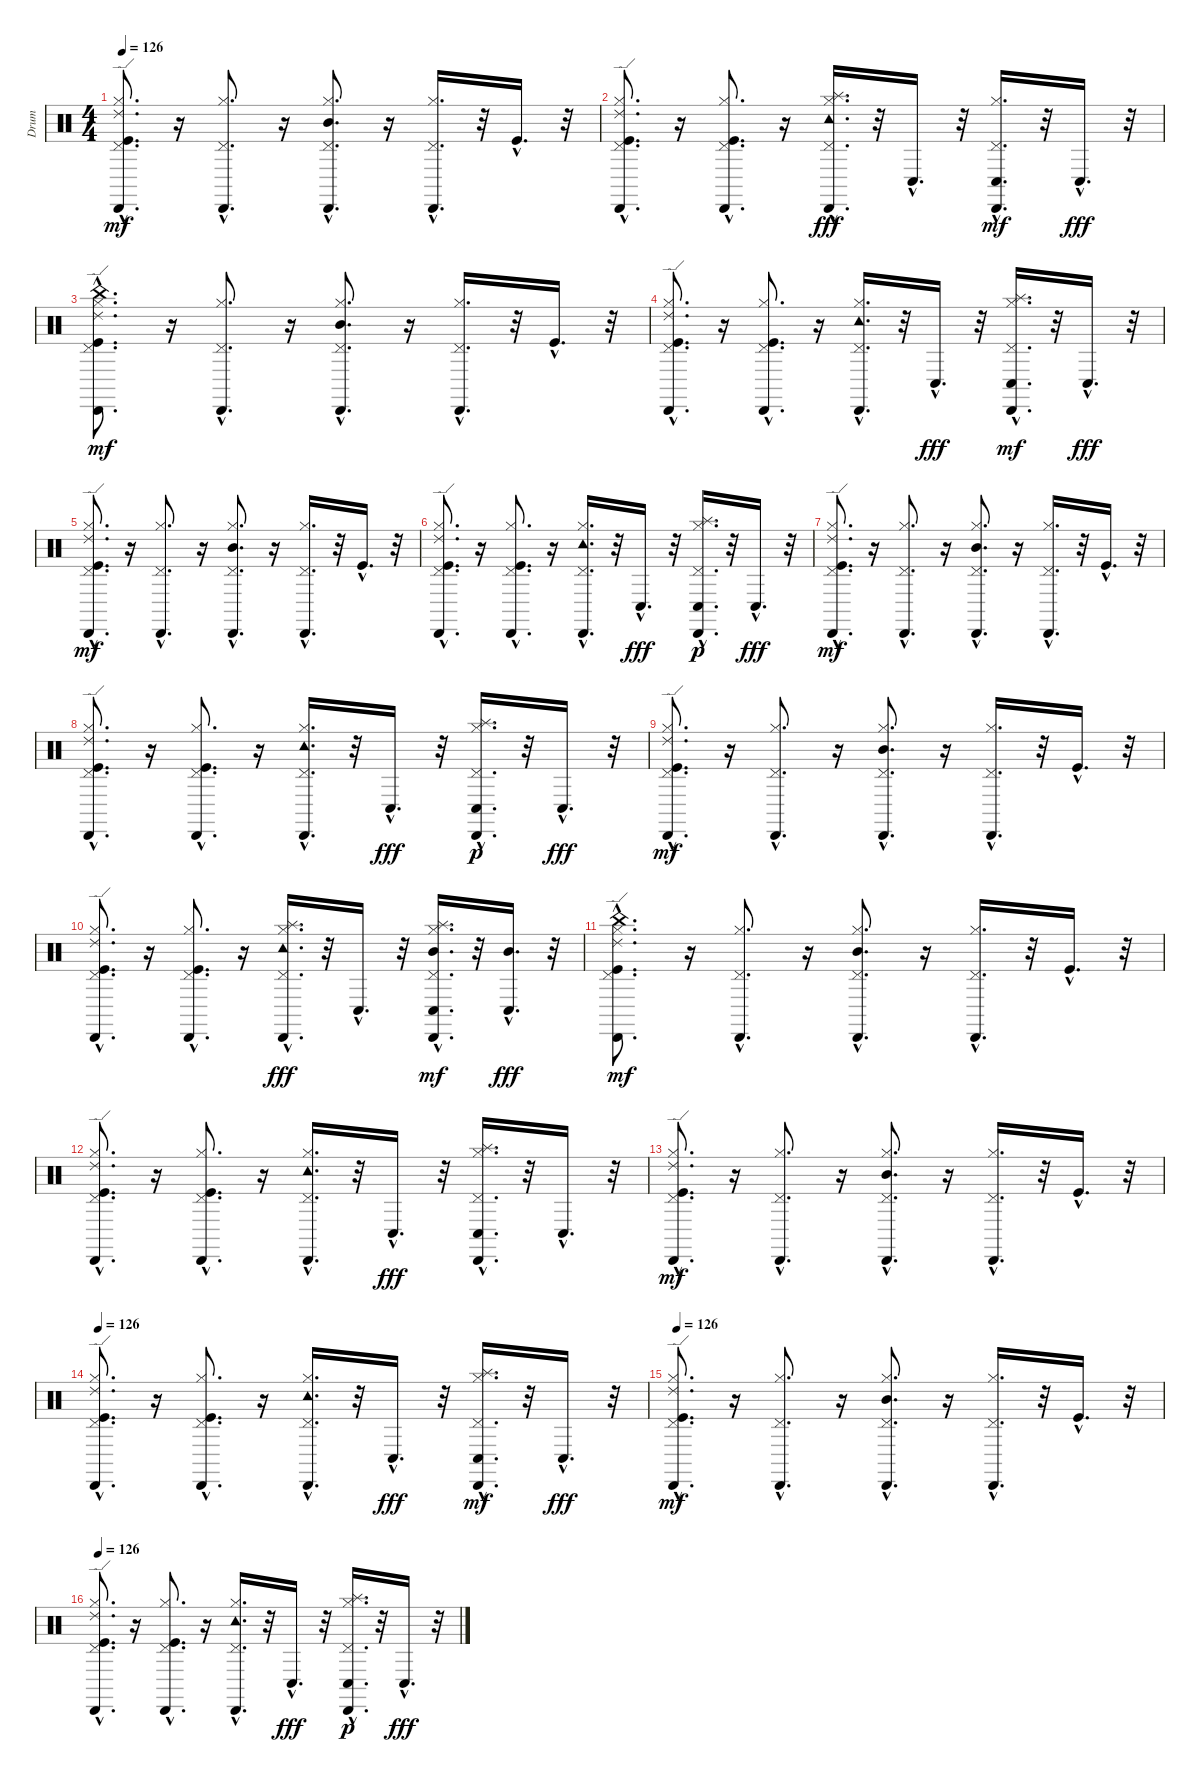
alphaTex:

\track ("Drum" "Drum") {instrument percussion}
\staff {score}
\articulation defaults
\ts (4 4)
\tempo 126
\clef neutral
\ks c
("Ride (edge) 2"{hac} "Cabasa (hit)"{hac} "Hi-Hat (closed)"{hac} "Kick (hit)"{hac} "Pedal Hi-Hat (hit)"{hac}).8{d dy mf} r.16 ("Cabasa (hit)"{hac} "Hi-Hat (closed)"{hac} "Pedal Hi-Hat (hit)"{hac}).8{d} r.16 ("Cabasa (hit)"{hac} "Hi-Hat (closed)"{hac} "Pedal Hi-Hat (hit)"{hac} "Mid Tom (hit)"{hac}).8{d} r.16 ("Cabasa (hit)"{hac} "Hi-Hat (closed)"{hac} "Pedal Hi-Hat (hit)"{hac}).16{d} r.32 "Kick (hit)"{hac}.16{d} r.32 |
("Pedal Hi-Hat (hit)"{hac} "Kick (hit)"{hac} "Hi-Hat (closed)"{hac} "Cabasa (hit)"{hac} "Ride (edge) 2"{hac}).8{d} r.16 ("Pedal Hi-Hat (hit)"{hac} "Kick (hit)"{hac} "Hi-Hat (closed)"{hac} "Cabasa (hit)"{hac}).8{d} r.16 ("Cabasa (hit)"{hac} "Pedal Hi-Hat (hit)"{hac} "Hi-Hat (closed)"{hac} "Tambourine (hit)"{hac} "Splash (hit)"{hac}).16{d dy fff} r.32 "Conga low (hit)"{hac}.16{d} r.32 ("Conga low (hit)"{hac} "Pedal Hi-Hat (hit)"{hac} "Hi-Hat (closed)"{hac} "Cabasa (hit)"{hac}).16{d dy mf} r.32 "Conga low (hit)"{hac}.16{d dy fff} r.32 |
("Ride (edge) 2"{hac} "Cabasa (hit)"{hac} "Hi-Hat (closed)"{hac} "Pedal Hi-Hat (hit)"{hac} "China (hit)"{hac} "Kick (hit)"{hac}).8{d dy mf} r.16 ("Cabasa (hit)"{hac} "Hi-Hat (closed)"{hac} "Pedal Hi-Hat (hit)"{hac}).8{d} r.16 ("Cabasa (hit)"{hac} "Hi-Hat (closed)"{hac} "Mid Tom (hit)"{hac} "Pedal Hi-Hat (hit)"{hac}).8{d} r.16 ("Cabasa (hit)"{hac} "Hi-Hat (closed)"{hac} "Pedal Hi-Hat (hit)"{hac}).16{d} r.32 "Kick (hit)"{hac}.16{d} r.32 |
("Ride (edge) 2"{hac} "Hi-Hat (closed)"{hac} "Cabasa (hit)"{hac} "Kick (hit)"{hac} "Pedal Hi-Hat (hit)"{hac}).8{d} r.16 ("Hi-Hat (closed)"{hac} "Cabasa (hit)"{hac} "Kick (hit)"{hac} "Pedal Hi-Hat (hit)"{hac}).8{d} r.16 ("Hi-Hat (closed)"{hac} "Cabasa (hit)"{hac} "Tambourine (hit)"{hac} "Pedal Hi-Hat (hit)"{hac}).16{d} r.32 "Conga low (hit)"{hac}.16{d dy fff} r.32 ("Cabasa (hit)"{hac} "Pedal Hi-Hat (hit)"{hac} "Splash (hit)"{hac} "Conga low (hit)"{hac} "Hi-Hat (closed)"{hac}).16{d dy mf} r.32 "Conga low (hit)"{hac}.16{d dy fff} r.32 |
("Ride (edge) 2"{hac} "Cabasa (hit)"{hac} "Hi-Hat (closed)"{hac} "Kick (hit)"{hac} "Pedal Hi-Hat (hit)"{hac}).8{d dy mf} r.16 ("Cabasa (hit)"{hac} "Hi-Hat (closed)"{hac} "Pedal Hi-Hat (hit)"{hac}).8{d} r.16 ("Cabasa (hit)"{hac} "Hi-Hat (closed)"{hac} "Pedal Hi-Hat (hit)"{hac} "Mid Tom (hit)"{hac}).8{d} r.16 ("Cabasa (hit)"{hac} "Hi-Hat (closed)"{hac} "Pedal Hi-Hat (hit)"{hac}).16{d} r.32 "Kick (hit)"{hac}.16{d} r.32 |
("Ride (edge) 2"{hac} "Cabasa (hit)"{hac} "Hi-Hat (closed)"{hac} "Kick (hit)"{hac} "Pedal Hi-Hat (hit)"{hac}).8{d} r.16 ("Cabasa (hit)"{hac} "Hi-Hat (closed)"{hac} "Kick (hit)"{hac} "Pedal Hi-Hat (hit)"{hac}).8{d} r.16 ("Tambourine (hit)"{hac} "Hi-Hat (closed)"{hac} "Pedal Hi-Hat (hit)"{hac} "Cabasa (hit)"{hac}).16{d} r.32 "Conga low (hit)"{hac}.16{d dy fff} r.32 ("Cabasa (hit)"{hac} "Hi-Hat (closed)"{hac} "Pedal Hi-Hat (hit)"{hac} "Conga low (hit)"{hac} "Splash (hit)"{hac}).16{d dy p} r.32 "Conga low (hit)"{hac}.16{d dy fff} r.32 |
("Ride (edge) 2"{hac} "Cabasa (hit)"{hac} "Hi-Hat (closed)"{hac} "Pedal Hi-Hat (hit)"{hac} "Kick (hit)"{hac}).8{d dy mf} r.16 ("Cabasa (hit)"{hac} "Hi-Hat (closed)"{hac} "Pedal Hi-Hat (hit)"{hac}).8{d} r.16 ("Cabasa (hit)"{hac} "Hi-Hat (closed)"{hac} "Mid Tom (hit)"{hac} "Pedal Hi-Hat (hit)"{hac}).8{d} r.16 ("Cabasa (hit)"{hac} "Hi-Hat (closed)"{hac} "Pedal Hi-Hat (hit)"{hac}).16{d} r.32 "Kick (hit)"{hac}.16{d} r.32 |
("Pedal Hi-Hat (hit)"{hac} "Kick (hit)"{hac} "Hi-Hat (closed)"{hac} "Cabasa (hit)"{hac} "Ride (edge) 2"{hac}).8{d} r.16 ("Pedal Hi-Hat (hit)"{hac} "Kick (hit)"{hac} "Hi-Hat (closed)"{hac} "Cabasa (hit)"{hac}).8{d} r.16 ("Tambourine (hit)"{hac} "Cabasa (hit)"{hac} "Pedal Hi-Hat (hit)"{hac} "Hi-Hat (closed)"{hac}).16{d} r.32 "Conga low (hit)"{hac}.16{d dy fff} r.32 ("Conga low (hit)"{hac} "Pedal Hi-Hat (hit)"{hac} "Hi-Hat (closed)"{hac} "Cabasa (hit)"{hac} "Splash (hit)"{hac}).16{d dy p} r.32 "Conga low (hit)"{hac}.16{d dy fff} r.32 |
("Ride (edge) 2"{hac} "Cabasa (hit)"{hac} "Hi-Hat (closed)"{hac} "Kick (hit)"{hac} "Pedal Hi-Hat (hit)"{hac}).8{d dy mf} r.16 ("Cabasa (hit)"{hac} "Hi-Hat (closed)"{hac} "Pedal Hi-Hat (hit)"{hac}).8{d} r.16 ("Cabasa (hit)"{hac} "Hi-Hat (closed)"{hac} "Pedal Hi-Hat (hit)"{hac} "Mid Tom (hit)"{hac}).8{d} r.16 ("Cabasa (hit)"{hac} "Hi-Hat (closed)"{hac} "Pedal Hi-Hat (hit)"{hac}).16{d} r.32 "Kick (hit)"{hac}.16{d} r.32 |
("Pedal Hi-Hat (hit)"{hac} "Kick (hit)"{hac} "Hi-Hat (closed)"{hac} "Cabasa (hit)"{hac} "Ride (edge) 2"{hac}).8{d} r.16 ("Pedal Hi-Hat (hit)"{hac} "Kick (hit)"{hac} "Hi-Hat (closed)"{hac} "Cabasa (hit)"{hac}).8{d} r.16 ("Cabasa (hit)"{hac} "Pedal Hi-Hat (hit)"{hac} "Hi-Hat (closed)"{hac} "Tambourine (hit)"{hac} "Splash (hit)"{hac}).16{d dy fff} r.32 "Conga low (hit)"{hac}.16{d} r.32 ("Mid Tom (hit)"{hac} "Splash (hit)"{hac} "Conga low (hit)"{hac} "Pedal Hi-Hat (hit)"{hac} "Hi-Hat (closed)"{hac} "Cabasa (hit)"{hac}).16{d dy mf} r.32 ("Mid Tom (hit)"{hac} "Conga low (hit)"{hac}).16{d dy fff} r.32 |
("China (hit)"{hac} "Kick (hit)"{hac} "Pedal Hi-Hat (hit)"{hac} "Hi-Hat (closed)"{hac} "Cabasa (hit)"{hac} "Ride (edge) 2"{hac}).8{d dy mf} r.16 ("Pedal Hi-Hat (hit)"{hac} "Hi-Hat (closed)"{hac} "Cabasa (hit)"{hac}).8{d} r.16 ("Pedal Hi-Hat (hit)"{hac} "Mid Tom (hit)"{hac} "Hi-Hat (closed)"{hac} "Cabasa (hit)"{hac}).8{d} r.16 ("Pedal Hi-Hat (hit)"{hac} "Hi-Hat (closed)"{hac} "Cabasa (hit)"{hac}).16{d} r.32 "Kick (hit)"{hac}.16{d} r.32 |
("Ride (edge) 2"{hac} "Cabasa (hit)"{hac} "Hi-Hat (closed)"{hac} "Kick (hit)"{hac} "Pedal Hi-Hat (hit)"{hac}).8{d} r.16 ("Cabasa (hit)"{hac} "Hi-Hat (closed)"{hac} "Kick (hit)"{hac} "Pedal Hi-Hat (hit)"{hac}).8{d} r.16 ("Hi-Hat (closed)"{hac} "Pedal Hi-Hat (hit)"{hac} "Cabasa (hit)"{hac} "Tambourine (hit)"{hac}).16{d} r.32 "Conga low (hit)"{hac}.16{d dy fff} r.32 ("Splash (hit)"{hac} "Cabasa (hit)"{hac} "Hi-Hat (closed)"{hac} "Pedal Hi-Hat (hit)"{hac} "Conga low (hit)"{hac}).16{d} r.32 "Conga low (hit)"{hac}.16{d} r.32 |
("Pedal Hi-Hat (hit)"{hac} "Kick (hit)"{hac} "Hi-Hat (closed)"{hac} "Cabasa (hit)"{hac} "Ride (edge) 2"{hac}).8{d dy mf} r.16 ("Pedal Hi-Hat (hit)"{hac} "Hi-Hat (closed)"{hac} "Cabasa (hit)"{hac}).8{d} r.16 ("Mid Tom (hit)"{hac} "Pedal Hi-Hat (hit)"{hac} "Hi-Hat (closed)"{hac} "Cabasa (hit)"{hac}).8{d} r.16 ("Pedal Hi-Hat (hit)"{hac} "Hi-Hat (closed)"{hac} "Cabasa (hit)"{hac}).16{d} r.32 "Kick (hit)"{hac}.16{d} r.32 |
\tempo 126
("Pedal Hi-Hat (hit)"{hac} "Kick (hit)"{hac} "Hi-Hat (closed)"{hac} "Cabasa (hit)"{hac} "Ride (edge) 2"{hac}).8{d} r.16 ("Pedal Hi-Hat (hit)"{hac} "Kick (hit)"{hac} "Hi-Hat (closed)"{hac} "Cabasa (hit)"{hac}).8{d} r.16 ("Cabasa (hit)"{hac} "Pedal Hi-Hat (hit)"{hac} "Hi-Hat (closed)"{hac} "Tambourine (hit)"{hac}).16{d} r.32 "Conga low (hit)"{hac}.16{d dy fff} r.32 ("Splash (hit)"{hac} "Conga low (hit)"{hac} "Pedal Hi-Hat (hit)"{hac} "Hi-Hat (closed)"{hac} "Cabasa (hit)"{hac}).16{d dy mf} r.32 "Conga low (hit)"{hac}.16{d dy fff} r.32 |
\tempo 126
("Ride (edge) 2"{hac} "Cabasa (hit)"{hac} "Hi-Hat (closed)"{hac} "Pedal Hi-Hat (hit)"{hac} "Kick (hit)"{hac}).8{d dy mf} r.16 ("Cabasa (hit)"{hac} "Hi-Hat (closed)"{hac} "Pedal Hi-Hat (hit)"{hac}).8{d} r.16 ("Cabasa (hit)"{hac} "Hi-Hat (closed)"{hac} "Mid Tom (hit)"{hac} "Pedal Hi-Hat (hit)"{hac}).8{d} r.16 ("Cabasa (hit)"{hac} "Hi-Hat (closed)"{hac} "Pedal Hi-Hat (hit)"{hac}).16{d} r.32 "Kick (hit)"{hac}.16{d} r.32 |
\tempo 126
("Pedal Hi-Hat (hit)"{hac} "Kick (hit)"{hac} "Hi-Hat (closed)"{hac} "Cabasa (hit)"{hac} "Ride (edge) 2"{hac}).8{d} r.16 ("Pedal Hi-Hat (hit)"{hac} "Kick (hit)"{hac} "Hi-Hat (closed)"{hac} "Cabasa (hit)"{hac}).8{d} r.16 ("Tambourine (hit)"{hac} "Cabasa (hit)"{hac} "Pedal Hi-Hat (hit)"{hac} "Hi-Hat (closed)"{hac}).16{d} r.32 "Conga low (hit)"{hac}.16{d dy fff} r.32 ("Conga low (hit)"{hac} "Pedal Hi-Hat (hit)"{hac} "Hi-Hat (closed)"{hac} "Cabasa (hit)"{hac} "Splash (hit)"{hac}).16{d dy p} r.32 "Conga low (hit)"{hac}.16{d dy fff} r.32
